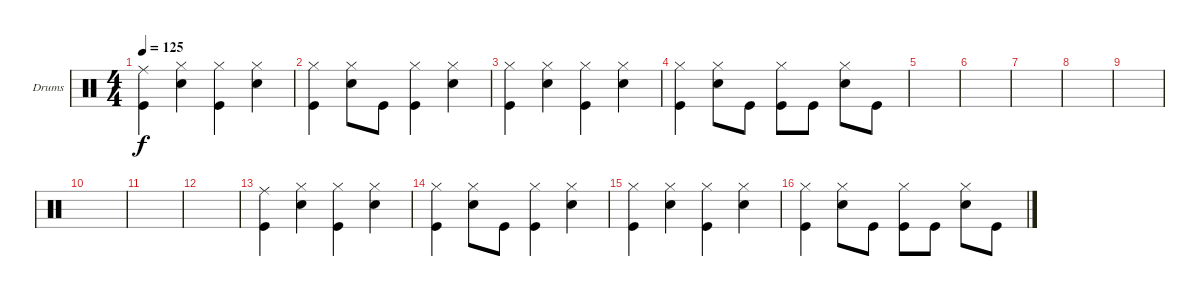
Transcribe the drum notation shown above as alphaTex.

\defaultSystemsLayout 4
\bracketExtendMode groupsimilarinstruments
\firstSystemTrackNameOrientation horizontal
\otherSystemsTrackNameOrientation horizontal
\track ("Drumkit" "Drums") {instrument percussion}
\staff {score}
\articulation defaults
\ts (4 4)
\tempo 125
\clef neutral
\scale
0.333333
\ks c
("Ride (middle)" "Kick (hit)").4{dy f} ("Snare (hit) 2" "Hi-Hat (closed)").4 ("Hi-Hat (closed)" "Kick (hit)").4 ("Hi-Hat (closed)" "Snare (hit) 2").4 |
\scale
0.333333 ("Hi-Hat (closed)" "Kick (hit)").4 ("Hi-Hat (closed)" "Snare (hit) 2").8 "Kick (hit)".8 ("Kick (hit)" "Hi-Hat (closed)").4 ("Hi-Hat (closed)" "Snare (hit) 2").4 |
\scale
0.333333 ("Hi-Hat (closed)" "Kick (hit)").4 ("Hi-Hat (closed)" "Snare (hit) 2").4 ("Hi-Hat (closed)" "Kick (hit)").4 ("Hi-Hat (closed)" "Snare (hit) 2").4 |
\scale
0.333333 ("Hi-Hat (closed)" "Kick (hit)").4 ("Snare (hit) 2" "Hi-Hat (closed)").8 "Kick (hit)".8 ("Kick (hit)" "Hi-Hat (closed)").8 "Kick (hit)".8 ("Snare (hit) 2" "Hi-Hat (closed)").8 "Kick (hit)".8 |
\scale
0.333333 |
\scale
0.333333 |
\scale
0.333333 |
\scale
0.333333 |
\scale
0.333333 |
\scale
0.333333 |
\scale
0.333333 |
\scale
0.333333 |
\scale
0.333333 ("Ride (middle)" "Kick (hit)").4 ("Snare (hit) 2" "Hi-Hat (closed)").4 ("Hi-Hat (closed)" "Kick (hit)").4 ("Hi-Hat (closed)" "Snare (hit) 2").4 |
\scale
0.333333 ("Hi-Hat (closed)" "Kick (hit)").4 ("Hi-Hat (closed)" "Snare (hit) 2").8 "Kick (hit)".8 ("Kick (hit)" "Hi-Hat (closed)").4 ("Hi-Hat (closed)" "Snare (hit) 2").4 |
\scale
0.333333 ("Hi-Hat (closed)" "Kick (hit)").4 ("Hi-Hat (closed)" "Snare (hit) 2").4 ("Hi-Hat (closed)" "Kick (hit)").4 ("Hi-Hat (closed)" "Snare (hit) 2").4 |
\scale
0.333333 ("Hi-Hat (closed)" "Kick (hit)").4 ("Snare (hit) 2" "Hi-Hat (closed)").8 "Kick (hit)".8 ("Kick (hit)" "Hi-Hat (closed)").8 "Kick (hit)".8 ("Snare (hit) 2" "Hi-Hat (closed)").8 "Kick (hit)".8
